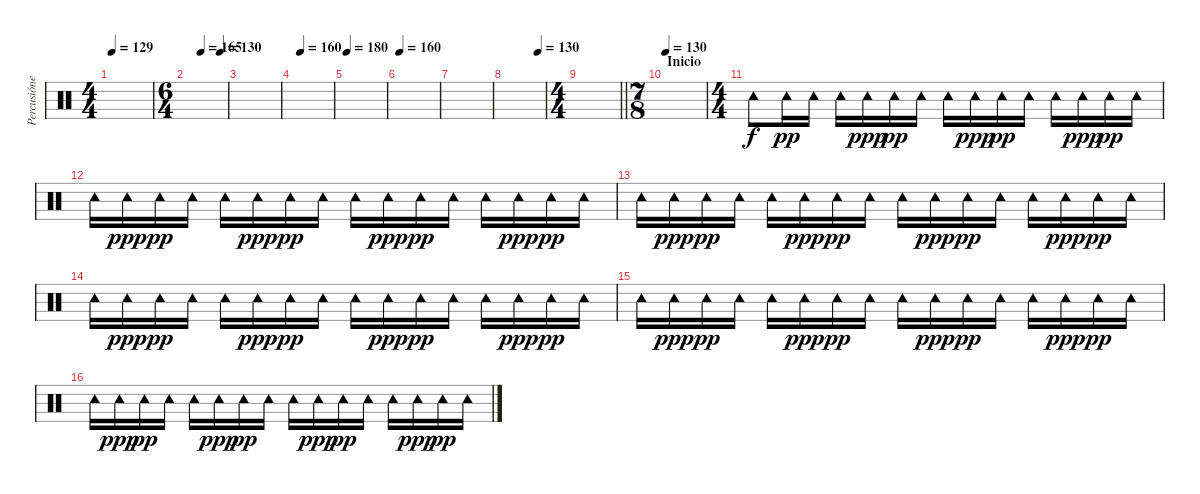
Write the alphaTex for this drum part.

\track ("Percusiónes" "Percusióne") {instrument percussion}
\staff {score}
\articulation defaults
\ts (4 4)
\tempo 129
\tempo 140
\tempo 129
\clef neutral
\ks c
|
\ts (6 4)
\tempo (165 0.3333333333333333)
\tempo (130 0.8333333333333334)
|
|
\tempo (160 0.16666666666666666)
|
\tempo 180
|
\tempo 160
|
|
\tempo (130 0.8333333333333334)
|
\ts (4 4)
\barLineRight lightlight
|
\ts (7 8)
\section ("" "Inicio")
\tempo 130
|
\ts (4 4)
"Tambourine (hit)".8 "Tambourine (hit)".16{dy pp} "Tambourine (hit)".16 "Tambourine (hit)".16 "Tambourine (hit)".16{dy ppp} "Tambourine (hit)".16{dy pp} "Tambourine (hit)".16 "Tambourine (hit)".16 "Tambourine (hit)".16{dy ppp} "Tambourine (hit)".16{dy pp} "Tambourine (hit)".16 "Tambourine (hit)".16 "Tambourine (hit)".16{dy ppp} "Tambourine (hit)".16{dy pp} "Tambourine (hit)".16 |
"Tambourine (hit)".16 "Tambourine (hit)".16{dy ppp} "Tambourine (hit)".16{dy pp} "Tambourine (hit)".16 "Tambourine (hit)".16 "Tambourine (hit)".16{dy ppp} "Tambourine (hit)".16{dy pp} "Tambourine (hit)".16 "Tambourine (hit)".16 "Tambourine (hit)".16{dy ppp} "Tambourine (hit)".16{dy pp} "Tambourine (hit)".16 "Tambourine (hit)".16 "Tambourine (hit)".16{dy ppp} "Tambourine (hit)".16{dy pp} "Tambourine (hit)".16 |
"Tambourine (hit)".16 "Tambourine (hit)".16{dy ppp} "Tambourine (hit)".16{dy pp} "Tambourine (hit)".16 "Tambourine (hit)".16 "Tambourine (hit)".16{dy ppp} "Tambourine (hit)".16{dy pp} "Tambourine (hit)".16 "Tambourine (hit)".16 "Tambourine (hit)".16{dy ppp} "Tambourine (hit)".16{dy pp} "Tambourine (hit)".16 "Tambourine (hit)".16 "Tambourine (hit)".16{dy ppp} "Tambourine (hit)".16{dy pp} "Tambourine (hit)".16 |
"Tambourine (hit)".16 "Tambourine (hit)".16{dy ppp} "Tambourine (hit)".16{dy pp} "Tambourine (hit)".16 "Tambourine (hit)".16 "Tambourine (hit)".16{dy ppp} "Tambourine (hit)".16{dy pp} "Tambourine (hit)".16 "Tambourine (hit)".16 "Tambourine (hit)".16{dy ppp} "Tambourine (hit)".16{dy pp} "Tambourine (hit)".16 "Tambourine (hit)".16 "Tambourine (hit)".16{dy ppp} "Tambourine (hit)".16{dy pp} "Tambourine (hit)".16 |
"Tambourine (hit)".16 "Tambourine (hit)".16{dy ppp} "Tambourine (hit)".16{dy pp} "Tambourine (hit)".16 "Tambourine (hit)".16 "Tambourine (hit)".16{dy ppp} "Tambourine (hit)".16{dy pp} "Tambourine (hit)".16 "Tambourine (hit)".16 "Tambourine (hit)".16{dy ppp} "Tambourine (hit)".16{dy pp} "Tambourine (hit)".16 "Tambourine (hit)".16 "Tambourine (hit)".16{dy ppp} "Tambourine (hit)".16{dy pp} "Tambourine (hit)".16 |
"Tambourine (hit)".16 "Tambourine (hit)".16{dy ppp} "Tambourine (hit)".16{dy pp} "Tambourine (hit)".16 "Tambourine (hit)".16 "Tambourine (hit)".16{dy ppp} "Tambourine (hit)".16{dy pp} "Tambourine (hit)".16 "Tambourine (hit)".16 "Tambourine (hit)".16{dy ppp} "Tambourine (hit)".16{dy pp} "Tambourine (hit)".16 "Tambourine (hit)".16 "Tambourine (hit)".16{dy ppp} "Tambourine (hit)".16{dy pp} "Tambourine (hit)".16
